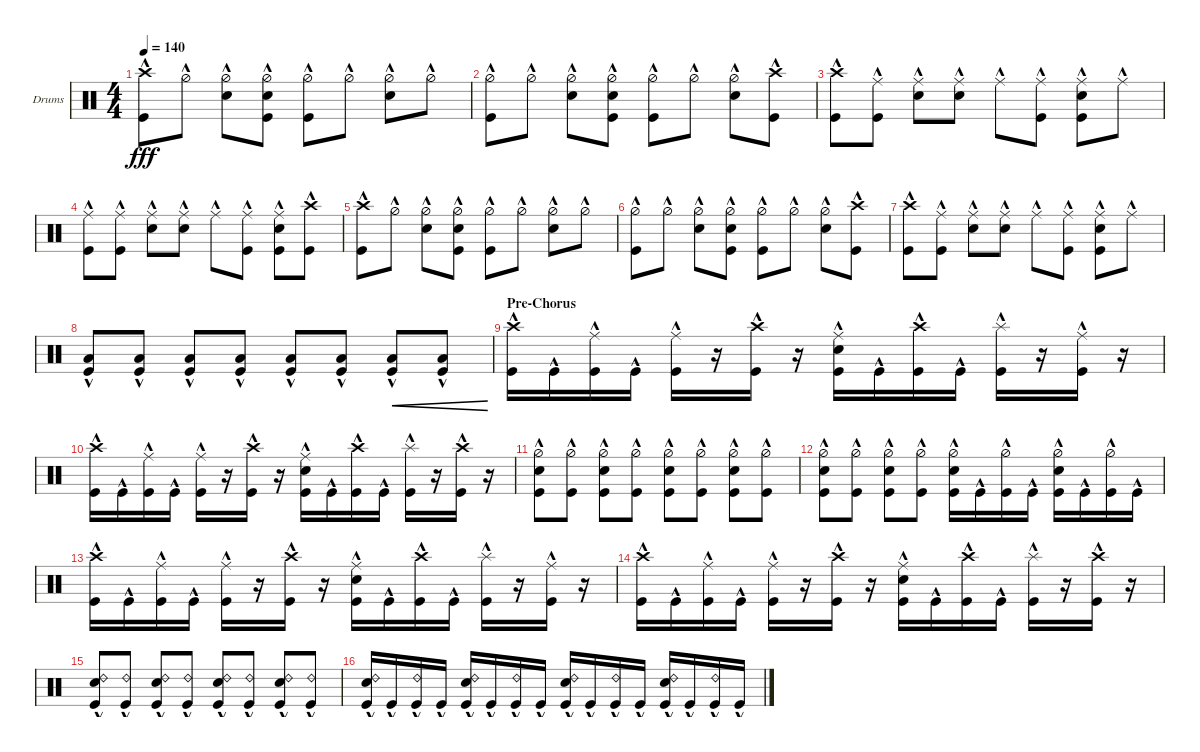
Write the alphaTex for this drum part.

\bracketExtendMode groupsimilarinstruments
\firstSystemTrackNameOrientation horizontal
\otherSystemsTrackNameOrientation horizontal
\track ("BigMc" "Drums") {instrument percussion}
\staff {score}
\articulation defaults
\ts (4 4)
\tempo 140
\clef neutral
\ks c
("Kick (hit)"{hac} "Crash high (hit)"{hac}).8{dy fff} "Hi-Hat (half)"{hac}.8 ("Hi-Hat (half)"{hac} "Snare (hit) 2"{hac}).8 ("Hi-Hat (half)"{hac} "Kick (hit)"{hac} "Snare (hit) 2"{hac}).8 ("Hi-Hat (half)"{hac} "Kick (hit)"{hac}).8 "Hi-Hat (half)"{hac}.8 ("Hi-Hat (half)"{hac} "Snare (hit) 2"{hac}).8 "Hi-Hat (half)"{hac}.8 |
("Hi-Hat (half)"{hac} "Kick (hit)"{hac}).8 "Hi-Hat (half)"{hac}.8 ("Hi-Hat (half)"{hac} "Snare (hit) 2"{hac}).8 ("Hi-Hat (half)"{hac} "Kick (hit)"{hac} "Snare (hit) 2"{hac}).8 ("Hi-Hat (half)"{hac} "Kick (hit)"{hac}).8 "Hi-Hat (half)"{hac}.8 ("Hi-Hat (half)"{hac} "Snare (hit) 2"{hac}).8 ("Crash high (hit)"{hac} "Kick (hit)"{hac}).8 |
("Kick (hit)"{hac} "Crash high (hit)"{hac}).8 ("Ride (middle)"{hac} "Kick (hit)"{hac}).8 ("Ride (middle)"{hac} "Snare (hit) 2"{hac}).8 ("Ride (middle)"{hac} "Snare (hit) 2"{hac}).8 "Ride (middle)"{hac}.8 ("Ride (middle)"{hac} "Kick (hit)"{hac}).8 ("Ride (middle)"{hac} "Snare (hit) 2"{hac} "Kick (hit)"{hac}).8 "Ride (middle)"{hac}.8 |
("Kick (hit)"{hac} "Ride (middle)"{hac}).8 ("Ride (middle)"{hac} "Kick (hit)"{hac}).8 ("Ride (middle)"{hac} "Snare (hit) 2"{hac}).8 ("Ride (middle)"{hac} "Snare (hit) 2"{hac}).8 "Ride (middle)"{hac}.8 ("Ride (middle)"{hac} "Kick (hit)"{hac}).8 ("Ride (middle)"{hac} "Snare (hit) 2"{hac} "Kick (hit)"{hac}).8 ("Crash high (hit)"{hac} "Kick (hit)"{hac}).8 |
("Kick (hit)"{hac} "Crash high (hit)"{hac}).8 "Hi-Hat (half)"{hac}.8 ("Hi-Hat (half)"{hac} "Snare (hit) 2"{hac}).8 ("Hi-Hat (half)"{hac} "Kick (hit)"{hac} "Snare (hit) 2"{hac}).8 ("Hi-Hat (half)"{hac} "Kick (hit)"{hac}).8 "Hi-Hat (half)"{hac}.8 ("Hi-Hat (half)"{hac} "Snare (hit) 2"{hac}).8 "Hi-Hat (half)"{hac}.8 |
("Hi-Hat (half)"{hac} "Kick (hit)"{hac}).8 "Hi-Hat (half)"{hac}.8 ("Hi-Hat (half)"{hac} "Snare (hit) 2"{hac}).8 ("Hi-Hat (half)"{hac} "Kick (hit)"{hac} "Snare (hit) 2"{hac}).8 ("Hi-Hat (half)"{hac} "Kick (hit)"{hac}).8 "Hi-Hat (half)"{hac}.8 ("Hi-Hat (half)"{hac} "Snare (hit) 2"{hac}).8 ("Crash high (hit)"{hac} "Kick (hit)"{hac}).8 |
("Kick (hit)"{hac} "Crash high (hit)"{hac}).8 ("Ride (middle)"{hac} "Kick (hit)"{hac}).8 ("Ride (middle)"{hac} "Snare (hit) 2"{hac}).8 ("Ride (middle)"{hac} "Snare (hit) 2"{hac}).8 "Ride (middle)"{hac}.8 ("Ride (middle)"{hac} "Kick (hit)"{hac}).8 ("Ride (middle)"{hac} "Snare (hit) 2"{hac} "Kick (hit)"{hac}).8 "Ride (middle)"{hac}.8 |
("Low Tom (hit)"{hac} "Kick (hit)"{hac}).8 ("Low Tom (hit)"{hac} "Kick (hit)"{hac}).8 ("Low Tom (hit)"{hac} "Kick (hit)"{hac}).8 ("Low Tom (hit)"{hac} "Kick (hit)"{hac}).8 ("Low Tom (hit)"{hac} "Kick (hit)"{hac}).8 ("Low Tom (hit)"{hac} "Kick (hit)"{hac}).8 ("Low Tom (hit)"{hac} "Kick (hit)"{hac}).8{cre} ("Low Tom (hit)"{hac} "Kick (hit)"{hac}).8{cre} |
\section ("" "Pre-Chorus")
("Kick (hit)"{hac} "Crash high (hit)"{hac}).16 "Kick (hit)"{hac}.16 ("Kick (hit)"{hac} "Ride (middle)"{hac}).16 "Kick (hit)"{hac}.16 ("Kick (hit)"{hac} "Ride (middle)"{hac}).16 r.16 ("Kick (hit)"{hac} "Crash high (hit)"{hac}).16 r.16 ("Kick (hit)"{hac} "Snare (hit) 2"{hac} "Ride (middle)"{hac}).16 "Kick (hit)"{hac}.16 ("Kick (hit)"{hac} "Crash high (hit)"{hac}).16 "Kick (hit)"{hac}.16 ("Kick (hit)"{hac} "Splash (hit)"{hac}).16 r.16 ("Kick (hit)"{hac} "Ride (middle)"{hac}).16 r.16 |
("Kick (hit)"{hac} "Crash high (hit)"{hac}).16 "Kick (hit)"{hac}.16 ("Kick (hit)"{hac} "Ride (middle)"{hac}).16 "Kick (hit)"{hac}.16 ("Kick (hit)"{hac} "Ride (middle)"{hac}).16 r.16 ("Kick (hit)"{hac} "Crash high (hit)"{hac}).16 r.16 ("Kick (hit)"{hac} "Snare (hit) 2"{hac} "Ride (middle)"{hac}).16 "Kick (hit)"{hac}.16 ("Kick (hit)"{hac} "Crash high (hit)"{hac}).16 "Kick (hit)"{hac}.16 ("Kick (hit)"{hac} "Splash (hit)"{hac}).16 r.16 ("Kick (hit)"{hac} "Crash high (hit)"{hac}).16 r.16 |
("Kick (hit)"{hac} "Hi-Hat (half)"{hac} "Snare (hit) 2"{hac}).8 ("Kick (hit)"{hac} "Hi-Hat (half)"{hac}).8 ("Kick (hit)"{hac} "Hi-Hat (half)"{hac} "Snare (hit) 2"{hac}).8 ("Kick (hit)"{hac} "Hi-Hat (half)"{hac}).8 ("Kick (hit)"{hac} "Hi-Hat (half)"{hac} "Snare (hit) 2"{hac}).8 ("Kick (hit)"{hac} "Hi-Hat (half)"{hac}).8 ("Kick (hit)"{hac} "Hi-Hat (half)"{hac} "Snare (hit) 2"{hac}).8 ("Kick (hit)"{hac} "Hi-Hat (half)"{hac}).8 |
("Kick (hit)"{hac} "Hi-Hat (half)"{hac} "Snare (hit) 2"{hac}).8 ("Kick (hit)"{hac} "Hi-Hat (half)"{hac}).8 ("Kick (hit)"{hac} "Hi-Hat (half)"{hac} "Snare (hit) 2"{hac}).8 ("Kick (hit)"{hac} "Hi-Hat (half)"{hac}).8 ("Kick (hit)"{hac} "Hi-Hat (half)"{hac} "Snare (hit) 2"{hac}).16 "Kick (hit)"{hac}.16 ("Kick (hit)"{hac} "Hi-Hat (half)"{hac}).16 "Kick (hit)"{hac}.16 ("Kick (hit)"{hac} "Hi-Hat (half)"{hac} "Snare (hit) 2"{hac}).16 "Kick (hit)"{hac}.16 ("Kick (hit)"{hac} "Hi-Hat (half)"{hac}).16 "Kick (hit)"{hac}.16 |
("Kick (hit)"{hac} "Crash high (hit)"{hac}).16 "Kick (hit)"{hac}.16 ("Kick (hit)"{hac} "Ride (middle)"{hac}).16 "Kick (hit)"{hac}.16 ("Kick (hit)"{hac} "Ride (middle)"{hac}).16 r.16 ("Kick (hit)"{hac} "Crash high (hit)"{hac}).16 r.16 ("Kick (hit)"{hac} "Snare (hit) 2"{hac} "Ride (middle)"{hac}).16 "Kick (hit)"{hac}.16 ("Kick (hit)"{hac} "Crash high (hit)"{hac}).16 "Kick (hit)"{hac}.16 ("Kick (hit)"{hac} "Splash (hit)"{hac}).16 r.16 ("Kick (hit)"{hac} "Ride (middle)"{hac}).16 r.16 |
("Kick (hit)"{hac} "Crash high (hit)"{hac}).16 "Kick (hit)"{hac}.16 ("Kick (hit)"{hac} "Ride (middle)"{hac}).16 "Kick (hit)"{hac}.16 ("Kick (hit)"{hac} "Ride (middle)"{hac}).16 r.16 ("Kick (hit)"{hac} "Crash high (hit)"{hac}).16 r.16 ("Kick (hit)"{hac} "Snare (hit) 2"{hac} "Ride (middle)"{hac}).16 "Kick (hit)"{hac}.16 ("Kick (hit)"{hac} "Crash high (hit)"{hac}).16 "Kick (hit)"{hac}.16 ("Kick (hit)"{hac} "Splash (hit)"{hac}).16 r.16 ("Kick (hit)"{hac} "Crash high (hit)"{hac}).16 r.16 |
("Kick (hit)"{hac} "Snare (hit) 2"{hac} "Ride (bell) 2"{hac}).8 ("Kick (hit)"{hac} "Ride (bell) 2"{hac}).8 ("Kick (hit)"{hac} "Snare (hit) 2"{hac} "Ride (bell) 2"{hac}).8 ("Kick (hit)"{hac} "Ride (bell) 2"{hac}).8 ("Kick (hit)"{hac} "Snare (hit) 2"{hac} "Ride (bell) 2"{hac}).8 ("Kick (hit)"{hac} "Ride (bell) 2"{hac}).8 ("Kick (hit)"{hac} "Snare (hit) 2"{hac} "Ride (bell) 2"{hac}).8 ("Kick (hit)"{hac} "Ride (bell) 2"{hac}).8 |
("Kick (hit)"{hac} "Snare (hit) 2"{hac} "Ride (bell) 2"{hac}).16 "Kick (hit)"{hac}.16 ("Kick (hit)"{hac} "Ride (bell) 2"{hac}).16 "Kick (hit)"{hac}.16 ("Kick (hit)"{hac} "Snare (hit) 2"{hac} "Ride (bell) 2"{hac}).16 "Kick (hit)"{hac}.16 ("Kick (hit)"{hac} "Ride (bell) 2"{hac}).16 "Kick (hit)"{hac}.16 ("Kick (hit)"{hac} "Snare (hit) 2"{hac} "Ride (bell) 2"{hac}).16 "Kick (hit)"{hac}.16 ("Kick (hit)"{hac} "Ride (bell) 2"{hac}).16 "Kick (hit)"{hac}.16 ("Kick (hit)"{hac} "Snare (hit) 2"{hac} "Ride (bell) 2"{hac}).16 "Kick (hit)"{hac}.16 ("Kick (hit)"{hac} "Ride (bell) 2"{hac}).16 "Kick (hit)"{hac}.16
